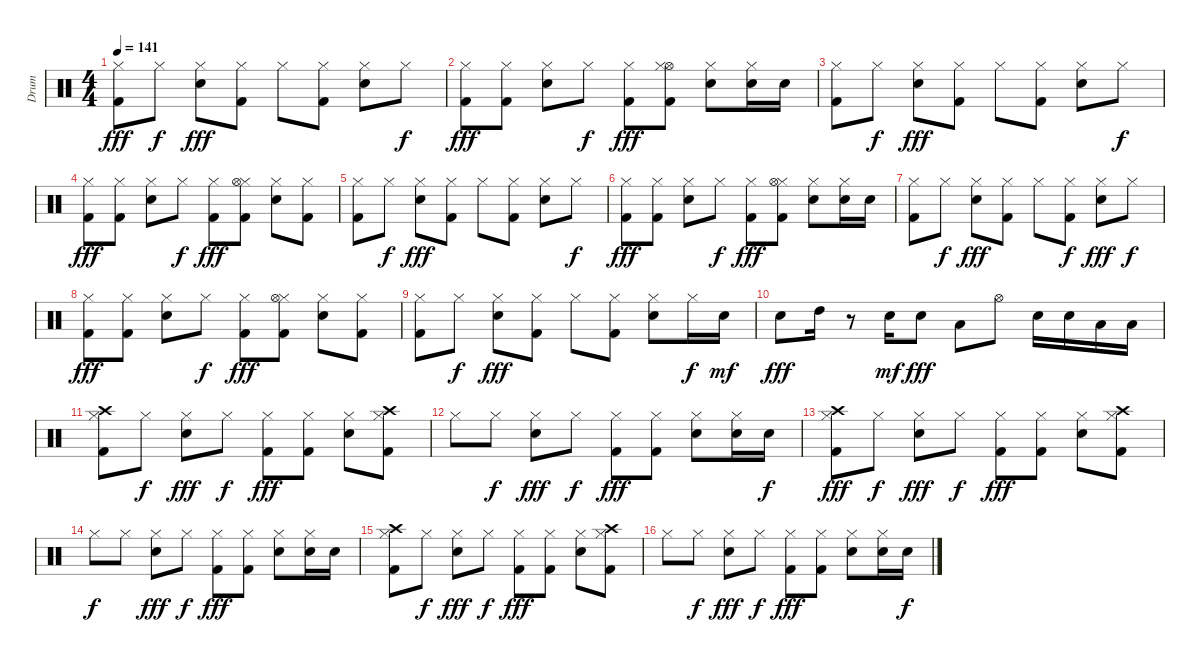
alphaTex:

\track ("Drum" "Drum") {instrument percussion}
\staff {score}
\articulation defaults
\ts (4 4)
\tempo 141
\clef neutral
\ks c
("Kick (hit) 2" "Hi-Hat (closed)").8{dy fff} "Hi-Hat (closed)".8{dy f} ("Snare (hit) 2" "Hi-Hat (closed)").8{dy fff} ("Hi-Hat (closed)" "Kick (hit) 2").8 "Hi-Hat (closed)".8 ("Kick (hit) 2" "Hi-Hat (closed)").8 ("Hi-Hat (closed)" "Snare (hit) 2").8 "Hi-Hat (closed)".8{dy f} |
("Kick (hit) 2" "Hi-Hat (closed)").8{dy fff} ("Kick (hit) 2" "Hi-Hat (closed)").8 ("Snare (hit) 2" "Hi-Hat (closed)").8 "Hi-Hat (closed)".8{dy f} ("Kick (hit) 2" "Hi-Hat (closed)").8{dy fff} ("Hi-Hat (open)" "Hi-Hat (closed)" "Kick (hit) 2").8 ("Snare (hit) 2" "Hi-Hat (closed)").8 ("Snare (hit) 2" "Hi-Hat (closed)").16 "Snare (hit) 2".16 |
("Hi-Hat (closed)" "Kick (hit) 2").8 "Hi-Hat (closed)".8{dy f} ("Hi-Hat (closed)" "Snare (hit) 2").8{dy fff} ("Hi-Hat (closed)" "Kick (hit) 2").8 "Hi-Hat (closed)".8 ("Hi-Hat (closed)" "Kick (hit) 2").8 ("Hi-Hat (closed)" "Snare (hit) 2").8 "Hi-Hat (closed)".8{dy f} |
("Hi-Hat (closed)" "Kick (hit) 2").8{dy fff} ("Hi-Hat (closed)" "Kick (hit) 2").8 ("Hi-Hat (closed)" "Snare (hit) 2").8 "Hi-Hat (closed)".8{dy f} ("Hi-Hat (closed)" "Kick (hit) 2").8{dy fff} ("Hi-Hat (closed)" "Kick (hit) 2" "Hi-Hat (open)").8 ("Hi-Hat (closed)" "Snare (hit) 2").8 ("Hi-Hat (closed)" "Kick (hit) 2").8 |
("Hi-Hat (closed)" "Kick (hit) 2").8 "Hi-Hat (closed)".8{dy f} ("Hi-Hat (closed)" "Snare (hit) 2").8{dy fff} ("Hi-Hat (closed)" "Kick (hit) 2").8 "Hi-Hat (closed)".8 ("Hi-Hat (closed)" "Kick (hit) 2").8 ("Hi-Hat (closed)" "Snare (hit) 2").8 "Hi-Hat (closed)".8{dy f} |
("Kick (hit) 2" "Hi-Hat (closed)").8{dy fff} ("Kick (hit) 2" "Hi-Hat (closed)").8 ("Snare (hit) 2" "Hi-Hat (closed)").8 "Hi-Hat (closed)".8{dy f} ("Kick (hit) 2" "Hi-Hat (closed)").8{dy fff} ("Kick (hit) 2" "Hi-Hat (closed)" "Hi-Hat (open)").8 ("Snare (hit) 2" "Hi-Hat (closed)").8 ("Snare (hit) 2" "Hi-Hat (closed)").16 "Snare (hit) 2".16 |
("Hi-Hat (closed)" "Kick (hit) 2").8 "Hi-Hat (closed)".8{dy f} ("Hi-Hat (closed)" "Snare (hit) 2").8{dy fff} ("Hi-Hat (closed)" "Kick (hit) 2").8 "Hi-Hat (closed)".8 ("Hi-Hat (closed)" "Kick (hit) 2").8{dy f} ("Hi-Hat (closed)" "Snare (hit) 2").8{dy fff} "Hi-Hat (closed)".8{dy f} |
("Kick (hit) 2" "Hi-Hat (closed)").8{dy fff} ("Kick (hit) 2" "Hi-Hat (closed)").8 ("Snare (hit) 2" "Hi-Hat (closed)").8 "Hi-Hat (closed)".8{dy f} ("Kick (hit) 2" "Hi-Hat (closed)").8{dy fff} ("Kick (hit) 2" "Hi-Hat (closed)" "Hi-Hat (open)").8 ("Snare (hit) 2" "Hi-Hat (closed)").8 ("Kick (hit) 2" "Hi-Hat (closed)").8 |
("Hi-Hat (closed)" "Kick (hit) 2").8 "Hi-Hat (closed)".8{dy f} ("Hi-Hat (closed)" "Snare (hit) 2").8{dy fff} ("Hi-Hat (closed)" "Kick (hit) 2").8 "Hi-Hat (closed)".8 ("Hi-Hat (closed)" "Kick (hit) 2").8 ("Hi-Hat (closed)" "Snare (hit) 2").8 "Hi-Hat (closed)".16{dy f} "Snare (hit) 2".16{dy mf} |
"Snare (hit) 2".8{dy fff} "High Tom (hit)".16 r.8 "Snare (hit) 2".16{dy mf} "Snare (hit) 2".8{dy fff} "Low Tom (hit)".8 "Hi-Hat (open)".8 "Snare (hit) 2".16 "Snare (hit) 2".16 "Low Tom (hit)".16 "Low Floor Tom (hit)".16 |
("Hi-Hat (closed)" "Kick (hit) 2" "Crash high (hit)").8 "Hi-Hat (closed)".8{dy f} ("Hi-Hat (closed)" "Snare (hit) 2").8{dy fff} "Hi-Hat (closed)".8{dy f} ("Hi-Hat (closed)" "Kick (hit) 2").8{dy fff} ("Hi-Hat (closed)" "Kick (hit) 2").8 ("Hi-Hat (closed)" "Snare (hit) 2").8 ("Hi-Hat (closed)" "Kick (hit) 2" "Crash high (hit)").8 |
"Hi-Hat (closed)".8 "Hi-Hat (closed)".8{dy f} ("Hi-Hat (closed)" "Snare (hit) 2").8{dy fff} "Hi-Hat (closed)".8{dy f} ("Hi-Hat (closed)" "Kick (hit) 2").8{dy fff} ("Hi-Hat (closed)" "Kick (hit) 2").8 ("Hi-Hat (closed)" "Snare (hit) 2").8 ("Hi-Hat (closed)" "Snare (hit) 2").16 "Snare (hit) 2".16{dy f} |
("Hi-Hat (closed)" "Kick (hit) 2" "Crash high (hit)").8{dy fff} "Hi-Hat (closed)".8{dy f} ("Hi-Hat (closed)" "Snare (hit) 2").8{dy fff} "Hi-Hat (closed)".8{dy f} ("Hi-Hat (closed)" "Kick (hit) 2").8{dy fff} ("Hi-Hat (closed)" "Kick (hit) 2").8 ("Hi-Hat (closed)" "Snare (hit) 2").8 ("Hi-Hat (closed)" "Kick (hit) 2" "Crash high (hit)").8 |
"Hi-Hat (closed)".8{dy f} "Hi-Hat (closed)".8 ("Snare (hit) 2" "Hi-Hat (closed)").8{dy fff} "Hi-Hat (closed)".8{dy f} ("Kick (hit) 2" "Hi-Hat (closed)").8{dy fff} ("Kick (hit) 2" "Hi-Hat (closed)").8 ("Snare (hit) 2" "Hi-Hat (closed)").8 ("Snare (hit) 2" "Hi-Hat (closed)").16 "Snare (hit) 2".16 |
("Kick (hit) 2" "Hi-Hat (closed)" "Crash high (hit)").8 "Hi-Hat (closed)".8{dy f} ("Snare (hit) 2" "Hi-Hat (closed)").8{dy fff} "Hi-Hat (closed)".8{dy f} ("Kick (hit) 2" "Hi-Hat (closed)").8{dy fff} ("Hi-Hat (closed)" "Kick (hit) 2").8 ("Snare (hit) 2" "Hi-Hat (closed)").8 ("Hi-Hat (closed)" "Kick (hit) 2" "Crash high (hit)").8 |
"Hi-Hat (closed)".8 "Hi-Hat (closed)".8{dy f} ("Hi-Hat (closed)" "Snare (hit) 2").8{dy fff} "Hi-Hat (closed)".8{dy f} ("Hi-Hat (closed)" "Kick (hit) 2").8{dy fff} ("Hi-Hat (closed)" "Kick (hit) 2").8 ("Hi-Hat (closed)" "Snare (hit) 2").8 ("Hi-Hat (closed)" "Snare (hit) 2").16 "Snare (hit) 2".16{dy f}
